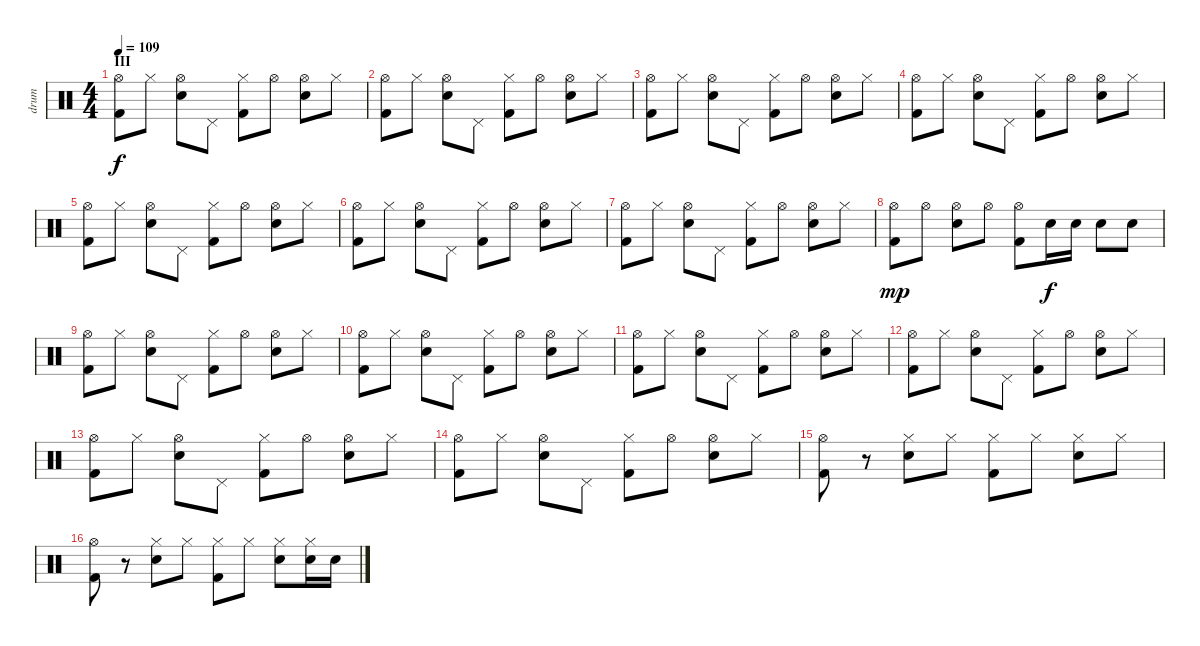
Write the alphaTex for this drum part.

\track ("drum" "drum") {instrument percussion}
\staff {score}
\articulation defaults
\ts (4 4)
\section ("" "III")
\tempo 109
\clef neutral
\ks c
("Hi-Hat (open)" "Kick (hit) 2").8{dy f} "Hi-Hat (closed)".8 ("Hi-Hat (open)" "Electric Snare (hit)").8 "Pedal Hi-Hat (hit)".8 ("Hi-Hat (closed)" "Kick (hit) 2").8 "Hi-Hat (open)".8 ("Hi-Hat (open)" "Electric Snare (hit)").8 "Hi-Hat (closed)".8 |
("Hi-Hat (open)" "Kick (hit) 2").8 "Hi-Hat (closed)".8 ("Hi-Hat (open)" "Electric Snare (hit)").8 "Pedal Hi-Hat (hit)".8 ("Hi-Hat (closed)" "Kick (hit) 2").8 "Hi-Hat (open)".8 ("Hi-Hat (open)" "Electric Snare (hit)").8 "Hi-Hat (closed)".8 |
("Hi-Hat (open)" "Kick (hit) 2").8 "Hi-Hat (closed)".8 ("Hi-Hat (open)" "Electric Snare (hit)").8 "Pedal Hi-Hat (hit)".8 ("Hi-Hat (closed)" "Kick (hit) 2").8 "Hi-Hat (open)".8 ("Hi-Hat (open)" "Electric Snare (hit)").8 "Hi-Hat (closed)".8 |
("Hi-Hat (open)" "Kick (hit) 2").8 "Hi-Hat (closed)".8 ("Hi-Hat (open)" "Electric Snare (hit)").8 "Pedal Hi-Hat (hit)".8 ("Hi-Hat (closed)" "Kick (hit) 2").8 "Hi-Hat (open)".8 ("Hi-Hat (open)" "Electric Snare (hit)").8 "Hi-Hat (closed)".8 |
("Hi-Hat (open)" "Kick (hit) 2").8 "Hi-Hat (closed)".8 ("Hi-Hat (open)" "Electric Snare (hit)").8 "Pedal Hi-Hat (hit)".8 ("Hi-Hat (closed)" "Kick (hit) 2").8 "Hi-Hat (open)".8 ("Hi-Hat (open)" "Electric Snare (hit)").8 "Hi-Hat (closed)".8 |
("Hi-Hat (open)" "Kick (hit) 2").8 "Hi-Hat (closed)".8 ("Hi-Hat (open)" "Electric Snare (hit)").8 "Pedal Hi-Hat (hit)".8 ("Hi-Hat (closed)" "Kick (hit) 2").8 "Hi-Hat (open)".8 ("Hi-Hat (open)" "Electric Snare (hit)").8 "Hi-Hat (closed)".8 |
("Hi-Hat (open)" "Kick (hit) 2").8 "Hi-Hat (closed)".8 ("Hi-Hat (open)" "Electric Snare (hit)").8 "Pedal Hi-Hat (hit)".8 ("Hi-Hat (closed)" "Kick (hit) 2").8 "Hi-Hat (open)".8 ("Hi-Hat (open)" "Electric Snare (hit)").8 "Hi-Hat (closed)".8 |
("Hi-Hat (open)" "Kick (hit) 2").8{dy mp} "Hi-Hat (open)".8 ("Hi-Hat (open)" "Electric Snare (hit)").8 "Hi-Hat (open)".8 ("Hi-Hat (open)" "Kick (hit) 2").8 "Electric Snare (hit)".16{dy f} "Electric Snare (hit)".16 "Electric Snare (hit)".8 "Electric Snare (hit)".8 |
("Hi-Hat (open)" "Kick (hit) 2").8 "Hi-Hat (closed)".8 ("Hi-Hat (open)" "Electric Snare (hit)").8 "Pedal Hi-Hat (hit)".8 ("Hi-Hat (closed)" "Kick (hit) 2").8 "Hi-Hat (open)".8 ("Hi-Hat (open)" "Electric Snare (hit)").8 "Hi-Hat (closed)".8 |
("Hi-Hat (open)" "Kick (hit) 2").8 "Hi-Hat (closed)".8 ("Hi-Hat (open)" "Electric Snare (hit)").8 "Pedal Hi-Hat (hit)".8 ("Hi-Hat (closed)" "Kick (hit) 2").8 "Hi-Hat (open)".8 ("Hi-Hat (open)" "Electric Snare (hit)").8 "Hi-Hat (closed)".8 |
("Hi-Hat (open)" "Kick (hit) 2").8 "Hi-Hat (closed)".8 ("Hi-Hat (open)" "Electric Snare (hit)").8 "Pedal Hi-Hat (hit)".8 ("Hi-Hat (closed)" "Kick (hit) 2").8 "Hi-Hat (open)".8 ("Hi-Hat (open)" "Electric Snare (hit)").8 "Hi-Hat (closed)".8 |
("Hi-Hat (open)" "Kick (hit) 2").8 "Hi-Hat (closed)".8 ("Hi-Hat (open)" "Electric Snare (hit)").8 "Pedal Hi-Hat (hit)".8 ("Hi-Hat (closed)" "Kick (hit) 2").8 "Hi-Hat (open)".8 ("Hi-Hat (open)" "Electric Snare (hit)").8 "Hi-Hat (closed)".8 |
("Hi-Hat (open)" "Kick (hit) 2").8 "Hi-Hat (closed)".8 ("Hi-Hat (open)" "Electric Snare (hit)").8 "Pedal Hi-Hat (hit)".8 ("Hi-Hat (closed)" "Kick (hit) 2").8 "Hi-Hat (open)".8 ("Hi-Hat (open)" "Electric Snare (hit)").8 "Hi-Hat (closed)".8 |
("Hi-Hat (open)" "Kick (hit) 2").8 "Hi-Hat (closed)".8 ("Hi-Hat (open)" "Electric Snare (hit)").8 "Pedal Hi-Hat (hit)".8 ("Hi-Hat (closed)" "Kick (hit) 2").8 "Hi-Hat (open)".8 ("Hi-Hat (open)" "Electric Snare (hit)").8 "Hi-Hat (closed)".8 |
("Hi-Hat (open)" "Kick (hit) 2").8 r.8 ("Hi-Hat (closed)" "Electric Snare (hit)").8 "Hi-Hat (closed)".8 ("Hi-Hat (closed)" "Kick (hit) 2").8 "Hi-Hat (closed)".8 ("Hi-Hat (closed)" "Electric Snare (hit)").8 "Hi-Hat (closed)".8 |
("Hi-Hat (open)" "Kick (hit) 2").8 r.8 ("Hi-Hat (closed)" "Electric Snare (hit)").8 "Hi-Hat (closed)".8 ("Hi-Hat (closed)" "Kick (hit) 2").8 "Hi-Hat (closed)".8 ("Hi-Hat (closed)" "Electric Snare (hit)").8 ("Hi-Hat (closed)" "Electric Snare (hit)").16 "Electric Snare (hit)".16
